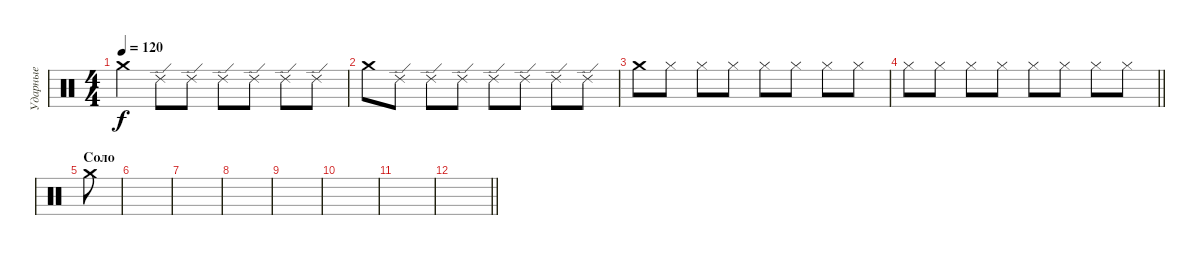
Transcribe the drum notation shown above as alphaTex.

\track ("Ударные" "Ударные") {instrument percussion}
\staff {score}
\articulation defaults
\ts (4 4)
\tempo 120
\clef neutral
\ks c "Crash medium (hit)".4{dy f} "Ride (edge) 2".8 "Ride (edge) 2".8 "Ride (edge) 2".8 "Ride (edge) 2".8 "Ride (edge) 2".8 "Ride (edge) 2".8
|
"Crash medium (hit)".8 "Ride (edge) 2".8 "Ride (edge) 2".8 "Ride (edge) 2".8 "Ride (edge) 2".8 "Ride (edge) 2".8 "Ride (edge) 2".8 "Ride (edge) 2".8 |
"Crash medium (hit)".8 "Hi-Hat (closed)".8 "Hi-Hat (closed)".8 "Hi-Hat (closed)".8 "Hi-Hat (closed)".8 "Hi-Hat (closed)".8 "Hi-Hat (closed)".8 "Hi-Hat (closed)".8 |
\barLineRight lightlight "Hi-Hat (closed)".8 "Hi-Hat (closed)".8 "Hi-Hat (closed)".8 "Hi-Hat (closed)".8 "Hi-Hat (closed)".8 "Hi-Hat (closed)".8 "Hi-Hat (closed)".8 "Hi-Hat (closed)".8
|
\section ("" "Соло")
"Crash medium (hit)".8 |
|
|
|
|
|
|
\barLineRight lightlight
